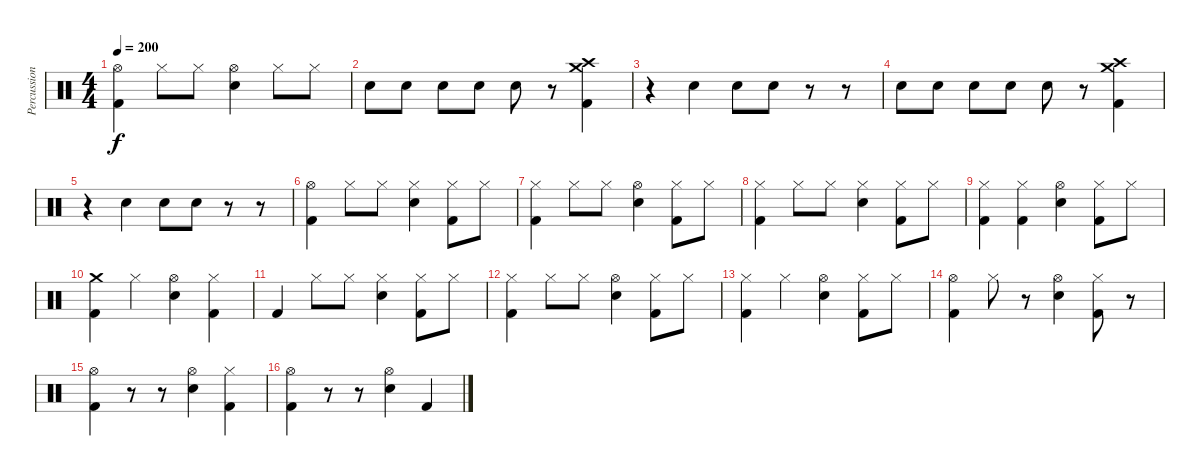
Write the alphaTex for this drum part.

\track ("Percussion" "Percussion") {instrument percussion}
\staff {score}
\articulation defaults
\ts (4 4)
\tempo 200
\clef neutral
\ks c
("Hi-Hat (open)" "Kick (hit) 2").4{dy f} "Hi-Hat (closed)".8 "Hi-Hat (closed)".8 ("Hi-Hat (open)" "Snare (hit) 2").4 "Hi-Hat (closed)".8 "Hi-Hat (closed)".8 |
"Snare (hit) 2".8 "Snare (hit) 2".8 "Snare (hit) 2".8 "Snare (hit) 2".8 "Snare (hit) 2".8 r.8 ("Crash medium (hit)" "Crash high (hit)" "Kick (hit) 2").4 |
r.4 "Snare (hit) 2".4 "Snare (hit) 2".8 "Snare (hit) 2".8 r.8 r.8 |
"Snare (hit) 2".8 "Snare (hit) 2".8 "Snare (hit) 2".8 "Snare (hit) 2".8 "Snare (hit) 2".8 r.8 ("Crash medium (hit)" "Crash high (hit)" "Kick (hit) 2").4 |
r.4 "Snare (hit) 2".4 "Snare (hit) 2".8 "Snare (hit) 2".8 r.8 r.8 |
("Hi-Hat (open)" "Kick (hit) 2").4 "Hi-Hat (closed)".8 "Hi-Hat (closed)".8 ("Hi-Hat (closed)" "Snare (hit) 2").4 ("Hi-Hat (closed)" "Kick (hit) 2").8 "Hi-Hat (closed)".8 |
("Hi-Hat (closed)" "Kick (hit) 2").4 "Hi-Hat (closed)".8 "Hi-Hat (closed)".8 ("Hi-Hat (open)" "Snare (hit) 2").4 ("Hi-Hat (closed)" "Kick (hit) 2").8 "Hi-Hat (closed)".8 |
("Hi-Hat (closed)" "Kick (hit) 2").4 "Hi-Hat (closed)".8 "Hi-Hat (closed)".8 ("Hi-Hat (closed)" "Snare (hit) 2").4 ("Hi-Hat (closed)" "Kick (hit) 2").8 "Hi-Hat (closed)".8 |
("Hi-Hat (closed)" "Kick (hit) 2").4 ("Hi-Hat (closed)" "Kick (hit) 2").4 ("Hi-Hat (open)" "Snare (hit) 2").4 ("Hi-Hat (closed)" "Kick (hit) 2").8 "Hi-Hat (closed)".8 |
("Crash medium (hit)" "Kick (hit) 2").4 "Hi-Hat (closed)".4 ("Hi-Hat (open)" "Snare (hit) 2").4 ("Hi-Hat (closed)" "Kick (hit) 2").4 |
"Kick (hit) 2".4 "Hi-Hat (closed)".8 "Hi-Hat (closed)".8 ("Hi-Hat (closed)" "Snare (hit) 2").4 ("Hi-Hat (closed)" "Kick (hit) 2").8 "Hi-Hat (closed)".8 |
("Hi-Hat (closed)" "Kick (hit) 2").4 "Hi-Hat (closed)".8 "Hi-Hat (closed)".8 ("Hi-Hat (open)" "Snare (hit) 2").4 ("Hi-Hat (closed)" "Kick (hit) 2").8 "Hi-Hat (closed)".8 |
("Hi-Hat (closed)" "Kick (hit) 2").4 "Hi-Hat (closed)".4 ("Hi-Hat (open)" "Snare (hit) 2").4 ("Hi-Hat (closed)" "Kick (hit) 2").8 "Hi-Hat (closed)".8 |
("Hi-Hat (open)" "Kick (hit) 2").4 "Hi-Hat (closed)".8 r.8 ("Hi-Hat (open)" "Snare (hit) 2").4 ("Hi-Hat (closed)" "Kick (hit) 2").8 r.8 |
("Hi-Hat (open)" "Kick (hit) 2").4 r.8 r.8 ("Hi-Hat (open)" "Snare (hit) 2").4 ("Hi-Hat (closed)" "Kick (hit) 2").4 |
("Hi-Hat (open)" "Kick (hit) 2").4 r.8 r.8 ("Hi-Hat (open)" "Snare (hit) 2").4 "Kick (hit) 2".4
